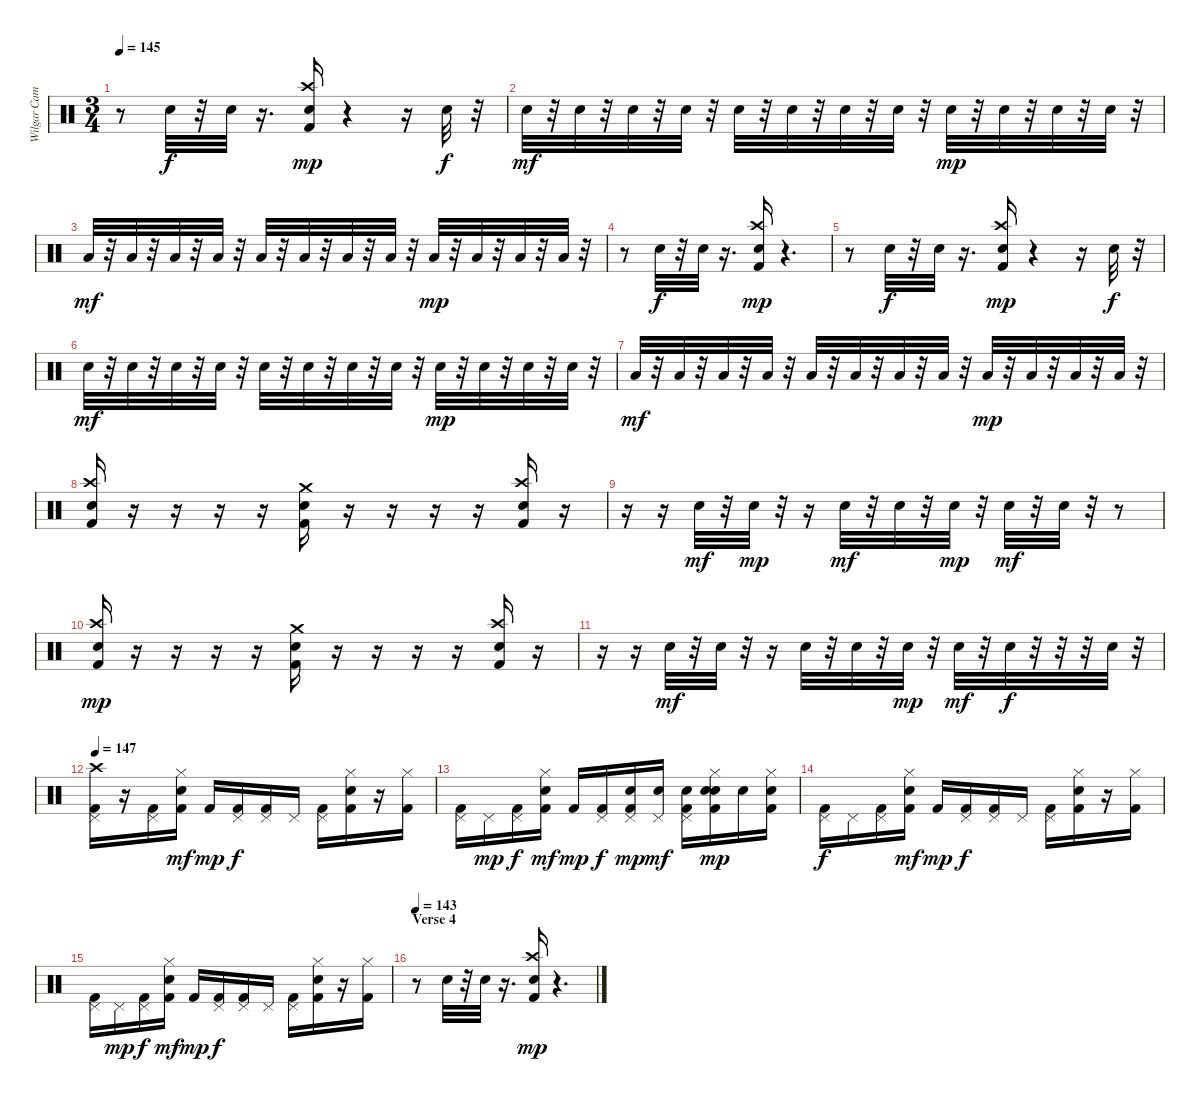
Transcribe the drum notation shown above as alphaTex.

\track ("Wilgar Campbell" "Wilgar Cam") {instrument percussion}
\staff {score}
\articulation defaults
\ts (3 4)
\tempo 145
\clef neutral
\ks c
r.8{dy mp} "Snare (hit) 2".32{dy f} r.32 "Snare (hit) 2".32 r.16{d} ("Crash high (hit)" "Snare (hit) 2" "Kick (hit) 2").16{dy mp} r.4 r.16 "Snare (hit) 2".32{dy f} r.32 |
"Snare (hit) 2".32{dy mf} r.32 "Snare (hit) 2".32 r.32 "Snare (hit) 2".32 r.32 "Snare (hit) 2".32 r.32 "Snare (hit) 2".32 r.32 "Snare (hit) 2".32 r.32 "Snare (hit) 2".32 r.32 "Snare (hit) 2".32 r.32 "Snare (hit) 2".32{dy mp} r.32 "Snare (hit) 2".32 r.32 "Snare (hit) 2".32 r.32 "Snare (hit) 2".32 r.32 |
"Low Tom (hit)".32{dy mf} r.32 "Low Tom (hit)".32 r.32 "Low Tom (hit)".32 r.32 "Low Tom (hit)".32 r.32 "Low Tom (hit)".32 r.32 "Low Tom (hit)".32 r.32 "Low Tom (hit)".32 r.32 "Low Tom (hit)".32 r.32 "Low Tom (hit)".32{dy mp} r.32 "Low Tom (hit)".32 r.32 "Low Tom (hit)".32 r.32 "Low Tom (hit)".32 r.32 |
r.8 "Snare (hit) 2".32{dy f} r.32 "Snare (hit) 2".32 r.16{d} ("Crash high (hit)" "Snare (hit) 2" "Kick (hit) 2").16{dy mp} r.4{d} |
r.8 "Snare (hit) 2".32{dy f} r.32 "Snare (hit) 2".32 r.16{d} ("Crash high (hit)" "Snare (hit) 2" "Kick (hit) 2").16{dy mp} r.4 r.16 "Snare (hit) 2".32{dy f} r.32 |
"Snare (hit) 2".32{dy mf} r.32 "Snare (hit) 2".32 r.32 "Snare (hit) 2".32 r.32 "Snare (hit) 2".32 r.32 "Snare (hit) 2".32 r.32 "Snare (hit) 2".32 r.32 "Snare (hit) 2".32 r.32 "Snare (hit) 2".32 r.32 "Snare (hit) 2".32{dy mp} r.32 "Snare (hit) 2".32 r.32 "Snare (hit) 2".32 r.32 "Snare (hit) 2".32 r.32 |
"Low Tom (hit)".32{dy mf} r.32 "Low Tom (hit)".32 r.32 "Low Tom (hit)".32 r.32 "Low Tom (hit)".32 r.32 "Low Tom (hit)".32 r.32 "Low Tom (hit)".32 r.32 "Low Tom (hit)".32 r.32 "Low Tom (hit)".32 r.32 "Low Tom (hit)".32{dy mp} r.32 "Low Tom (hit)".32 r.32 "Low Tom (hit)".32 r.32 "Low Tom (hit)".32 r.32 |
("Crash high (hit)" "Snare (hit) 2" "Kick (hit) 2").16 r.16 r.16 r.16 r.16 ("Crash medium (hit)" "Snare (hit) 2" "Kick (hit) 2").16 r.16 r.16 r.16 r.16 ("Crash high (hit)" "Snare (hit) 2" "Kick (hit) 2").16 r.16 |
r.16 r.16 "Snare (hit) 2".32{dy mf} r.32 "Electric Snare (hit)".32{dy mp} r.32 r.16 "Snare (hit) 2".32{dy mf} r.32 "Snare (hit) 2".32 r.32 "Snare (hit) 2".32{dy mp} r.32 "Snare (hit) 2".32{dy mf} r.32 "Electric Snare (hit)".32 r.32 r.8 |
("Crash high (hit)" "Snare (hit) 2" "Kick (hit) 2").16{dy mp} r.16 r.16 r.16 r.16 ("Crash medium (hit)" "Snare (hit) 2" "Kick (hit) 2").16 r.16 r.16 r.16 r.16 ("Crash high (hit)" "Snare (hit) 2" "Kick (hit) 2").16 r.16 |
r.16 r.16 "Snare (hit) 2".32{dy mf} r.32 "Snare (hit) 2".32 r.32 r.16 "Snare (hit) 2".32 r.32 "Snare (hit) 2".32 r.32 "Snare (hit) 2".32{dy mp} r.32 "Snare (hit) 2".32{dy mf} r.32 "Snare (hit) 2".32{dy f} r.32 r.32 r.32 "Snare (hit) 2".32 r.32 |
\tempo 147
("Crash high (hit)" "Pedal Hi-Hat (hit)" "Kick (hit) 2").16 r.16 ("Pedal Hi-Hat (hit)" "Kick (hit) 2").16 ("Snare (hit) 2" "Hi-Hat (closed)" "Kick (hit) 2").16{dy mf} "Kick (hit) 2".16{dy mp} ("Pedal Hi-Hat (hit)" "Kick (hit) 2").16{dy f} ("Pedal Hi-Hat (hit)" "Kick (hit) 2").16 "Pedal Hi-Hat (hit)".16 ("Pedal Hi-Hat (hit)" "Kick (hit) 2").16 ("Snare (hit) 2" "Hi-Hat (closed)" "Kick (hit) 2").16 r.16 ("Hi-Hat (closed)" "Kick (hit) 2").16 |
("Pedal Hi-Hat (hit)" "Kick (hit) 2").16 "Pedal Hi-Hat (hit)".16{dy mp} ("Pedal Hi-Hat (hit)" "Kick (hit) 2").16{dy f} ("Snare (hit) 2" "Hi-Hat (closed)" "Kick (hit) 2").16{dy mf} "Kick (hit) 2".16{dy mp} ("Pedal Hi-Hat (hit)" "Kick (hit) 2").16{dy f} ("Pedal Hi-Hat (hit)" "Snare (hit) 2" "Kick (hit) 2").16{dy mp} ("Pedal Hi-Hat (hit)" "Snare (hit) 2").16{dy mf} ("Pedal Hi-Hat (hit)" "Snare (hit) 2" "Kick (hit) 2").16 ("Snare (hit) 2" "Hi-Hat (closed)" "Snare (hit) 2" "Kick (hit) 2").16{dy mp} "Snare (hit) 2".16 ("Hi-Hat (closed)" "Snare (hit) 2" "Kick (hit) 2").16 |
("Pedal Hi-Hat (hit)" "Kick (hit) 2").16{dy f} "Pedal Hi-Hat (hit)".16 ("Pedal Hi-Hat (hit)" "Kick (hit) 2").16 ("Snare (hit) 2" "Hi-Hat (closed)" "Kick (hit) 2").16{dy mf} "Kick (hit) 2".16{dy mp} ("Pedal Hi-Hat (hit)" "Kick (hit) 2").16{dy f} ("Pedal Hi-Hat (hit)" "Kick (hit) 2").16 "Pedal Hi-Hat (hit)".16 ("Pedal Hi-Hat (hit)" "Kick (hit) 2").16 ("Snare (hit) 2" "Hi-Hat (closed)" "Kick (hit) 2").16 r.16 ("Hi-Hat (closed)" "Kick (hit) 2").16 |
("Pedal Hi-Hat (hit)" "Kick (hit) 2").16 "Pedal Hi-Hat (hit)".16{dy mp} ("Pedal Hi-Hat (hit)" "Kick (hit) 2").16{dy f} ("Snare (hit) 2" "Hi-Hat (closed)" "Kick (hit) 2").16{dy mf} "Kick (hit) 2".16{dy mp} ("Pedal Hi-Hat (hit)" "Kick (hit) 2").16{dy f} ("Pedal Hi-Hat (hit)" "Kick (hit) 2").16 "Pedal Hi-Hat (hit)".16 ("Pedal Hi-Hat (hit)" "Kick (hit) 2").16 ("Snare (hit) 2" "Hi-Hat (closed)" "Kick (hit) 2").16 r.16 ("Hi-Hat (closed)" "Kick (hit) 2").16 |
\section ("" "Verse 4")
\tempo 143
r.8 "Snare (hit) 2".32 r.32 "Snare (hit) 2".32 r.16{d} ("Crash high (hit)" "Snare (hit) 2" "Kick (hit) 2").16{dy mp} r.4{d}
